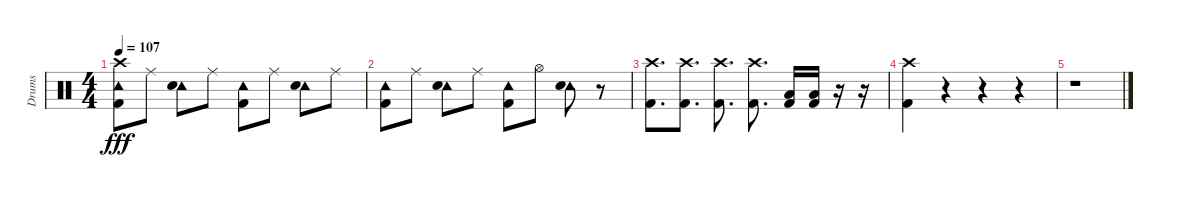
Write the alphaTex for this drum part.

\track ("Drums" "Drums") {instrument percussion}
\staff {score}
\articulation defaults
\ts (4 4)
\tempo 107
\clef neutral
\ks c
("Crash high (hit)" "Tambourine (hit)" "Kick (hit) 2").8{dy fff} "Ride (middle)".8 ("Tambourine (hit)" "Snare (hit) 2").8 "Ride (middle)".8 ("Tambourine (hit)" "Kick (hit) 2").8 "Ride (middle)".8 ("Tambourine (hit)" "Snare (hit) 2").8 "Ride (middle)".8 |
("Tambourine (hit)" "Kick (hit) 2").8 "Ride (middle)".8 ("Tambourine (hit)" "Snare (hit) 2").8 "Ride (middle)".8 ("Tambourine (hit)" "Kick (hit) 2").8 "Hi-Hat (open)".8 ("Tambourine (hit)" "Snare (hit) 2").8 r.8 |
("Crash high (hit)" "Kick (hit) 2").8{d} ("Crash high (hit)" "Kick (hit) 2").8{d} ("Crash high (hit)" "Kick (hit) 2").8{d} ("Crash high (hit)" "Kick (hit) 2").8{d} ("Low Floor Tom (hit)" "Kick (hit) 2").16 ("Low Floor Tom (hit)" "Kick (hit) 2").16 r.16 r.16 |
("Crash high (hit)" "Kick (hit) 2").4 r.4 r.4 r.4 |
r.1
